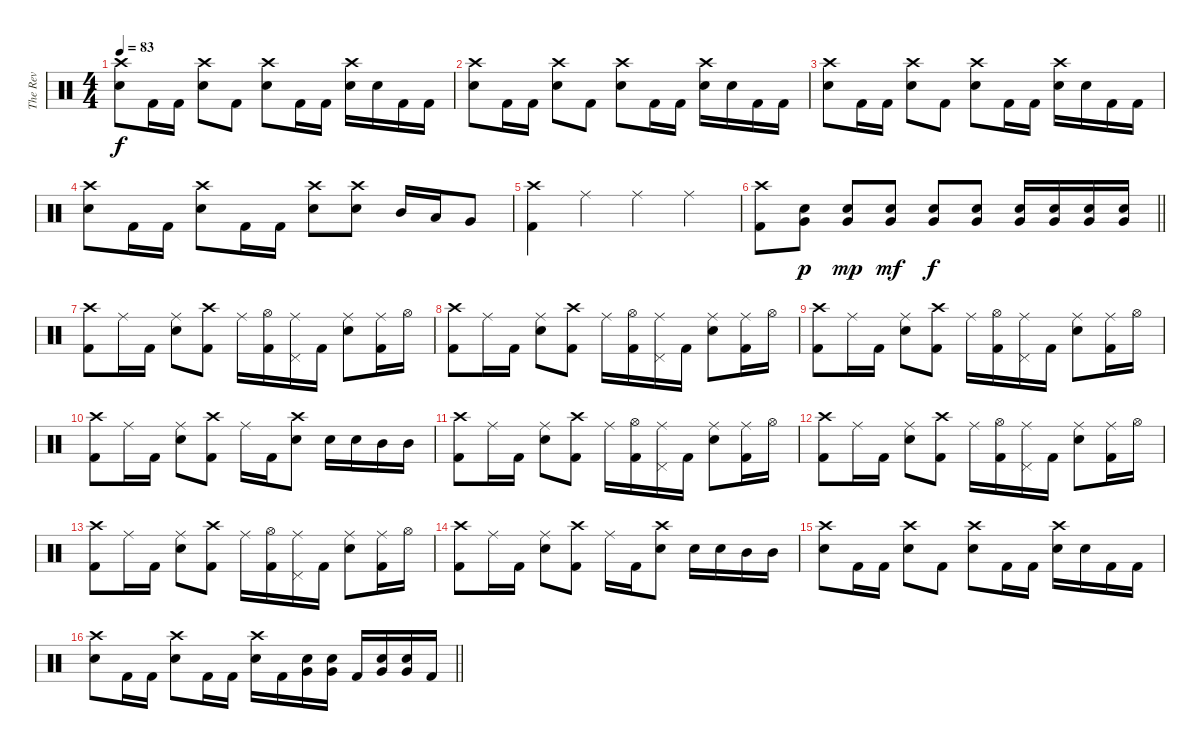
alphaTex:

\track ("The Rev" "The Rev") {instrument percussion}
\staff {score}
\articulation defaults
\ts (4 4)
\tempo 83
\clef neutral
\ks c
("Crash high (hit)" "Snare (hit) 2").8{dy f} "Kick (hit) 2".16 "Kick (hit) 2".16 ("Crash high (hit)" "Snare (hit) 2").8 "Kick (hit) 2".8 ("Crash high (hit)" "Snare (hit) 2").8 "Kick (hit) 2".16 "Kick (hit) 2".16 ("Crash high (hit)" "Snare (hit) 2").16 "Snare (hit) 2".16 "Kick (hit) 2".16 "Kick (hit) 2".16 |
("Crash high (hit)" "Snare (hit) 2").8 "Kick (hit) 2".16 "Kick (hit) 2".16 ("Crash high (hit)" "Snare (hit) 2").8 "Kick (hit) 2".8 ("Crash high (hit)" "Snare (hit) 2").8 "Kick (hit) 2".16 "Kick (hit) 2".16 ("Crash high (hit)" "Snare (hit) 2").16 "Snare (hit) 2".16 "Kick (hit) 2".16 "Kick (hit) 2".16 |
("Crash high (hit)" "Snare (hit) 2").8 "Kick (hit) 2".16 "Kick (hit) 2".16 ("Crash high (hit)" "Snare (hit) 2").8 "Kick (hit) 2".8 ("Crash high (hit)" "Snare (hit) 2").8 "Kick (hit) 2".16 "Kick (hit) 2".16 ("Crash high (hit)" "Snare (hit) 2").16 "Snare (hit) 2".16 "Kick (hit) 2".16 "Kick (hit) 2".16 |
("Crash high (hit)" "Snare (hit) 2").8 "Kick (hit) 2".16 "Kick (hit) 2".16 ("Crash high (hit)" "Snare (hit) 2").8 "Kick (hit) 2".16 "Kick (hit) 2".16 ("Crash high (hit)" "Snare (hit) 2").8 ("Crash high (hit)" "Snare (hit) 2").8 "Mid Tom (hit)".16 "Low Tom (hit)".16 "Very Low Tom (hit)".8 |
("Crash high (hit)" "Kick (hit) 2").4 "Ride (middle)".4 "Ride (middle)".4 "Ride (middle)".4 |
\barLineRight lightlight
("Crash high (hit)" "Kick (hit) 2").8 ("Snare (hit) 2" "Very Low Tom (hit)").8{dy p} ("Snare (hit) 2" "Very Low Tom (hit)").8{dy mp} ("Snare (hit) 2" "Very Low Tom (hit)").8{dy mf} ("Snare (hit) 2" "Very Low Tom (hit)").8{dy f} ("Snare (hit) 2" "Very Low Tom (hit)").8 ("Snare (hit) 2" "Very Low Tom (hit)").16 ("Snare (hit) 2" "Very Low Tom (hit)").16 ("Snare (hit) 2" "Very Low Tom (hit)").16 ("Snare (hit) 2" "Very Low Tom (hit)").16 |
("Crash high (hit)" "Kick (hit) 2").8 "Ride (middle)".16 "Kick (hit) 2".16 ("Ride (middle)" "Snare (hit) 2").8 ("Crash high (hit)" "Kick (hit) 2").8 "Ride (middle)".16 ("Hi-Hat (open)" "Kick (hit) 2").16 ("Ride (middle)" "Pedal Hi-Hat (hit)").16 "Kick (hit) 2".16 ("Ride (middle)" "Snare (hit) 2").8 ("Ride (middle)" "Kick (hit) 2").16 "Hi-Hat (open)".16 |
("Crash high (hit)" "Kick (hit) 2").8 "Ride (middle)".16 "Kick (hit) 2".16 ("Ride (middle)" "Snare (hit) 2").8 ("Crash high (hit)" "Kick (hit) 2").8 "Ride (middle)".16 ("Hi-Hat (open)" "Kick (hit) 2").16 ("Ride (middle)" "Pedal Hi-Hat (hit)").16 "Kick (hit) 2".16 ("Ride (middle)" "Snare (hit) 2").8 ("Ride (middle)" "Kick (hit) 2").16 "Hi-Hat (open)".16 |
("Crash high (hit)" "Kick (hit) 2").8 "Ride (middle)".16 "Kick (hit) 2".16 ("Ride (middle)" "Snare (hit) 2").8 ("Crash high (hit)" "Kick (hit) 2").8 "Ride (middle)".16 ("Hi-Hat (open)" "Kick (hit) 2").16 ("Ride (middle)" "Pedal Hi-Hat (hit)").16 "Kick (hit) 2".16 ("Ride (middle)" "Snare (hit) 2").8 ("Ride (middle)" "Kick (hit) 2").16 "Hi-Hat (open)".16 |
("Crash high (hit)" "Kick (hit) 2").8 "Ride (middle)".16 "Kick (hit) 2".16 ("Ride (middle)" "Snare (hit) 2").8 ("Crash high (hit)" "Kick (hit) 2").8 "Ride (middle)".16 "Kick (hit) 2".16 ("Crash high (hit)" "Snare (hit) 2").8 "Snare (hit) 2".16 "Snare (hit) 2".16 "Mid Tom (hit)".16 "Mid Tom (hit)".16 |
("Crash high (hit)" "Kick (hit) 2").8 "Ride (middle)".16 "Kick (hit) 2".16 ("Ride (middle)" "Snare (hit) 2").8 ("Crash high (hit)" "Kick (hit) 2").8 "Ride (middle)".16 ("Hi-Hat (open)" "Kick (hit) 2").16 ("Ride (middle)" "Pedal Hi-Hat (hit)").16 "Kick (hit) 2".16 ("Ride (middle)" "Snare (hit) 2").8 ("Ride (middle)" "Kick (hit) 2").16 "Hi-Hat (open)".16 |
("Crash high (hit)" "Kick (hit) 2").8 "Ride (middle)".16 "Kick (hit) 2".16 ("Ride (middle)" "Snare (hit) 2").8 ("Crash high (hit)" "Kick (hit) 2").8 "Ride (middle)".16 ("Hi-Hat (open)" "Kick (hit) 2").16 ("Ride (middle)" "Pedal Hi-Hat (hit)").16 "Kick (hit) 2".16 ("Ride (middle)" "Snare (hit) 2").8 ("Ride (middle)" "Kick (hit) 2").16 "Hi-Hat (open)".16 |
("Crash high (hit)" "Kick (hit) 2").8 "Ride (middle)".16 "Kick (hit) 2".16 ("Ride (middle)" "Snare (hit) 2").8 ("Crash high (hit)" "Kick (hit) 2").8 "Ride (middle)".16 ("Hi-Hat (open)" "Kick (hit) 2").16 ("Ride (middle)" "Pedal Hi-Hat (hit)").16 "Kick (hit) 2".16 ("Ride (middle)" "Snare (hit) 2").8 ("Ride (middle)" "Kick (hit) 2").16 "Hi-Hat (open)".16 |
("Crash high (hit)" "Kick (hit) 2").8 "Ride (middle)".16 "Kick (hit) 2".16 ("Ride (middle)" "Snare (hit) 2").8 ("Crash high (hit)" "Kick (hit) 2").8 "Ride (middle)".16 "Kick (hit) 2".16 ("Crash high (hit)" "Snare (hit) 2").8 "Snare (hit) 2".16 "Snare (hit) 2".16 "Mid Tom (hit)".16 "Mid Tom (hit)".16 |
("Crash high (hit)" "Snare (hit) 2").8 "Kick (hit) 2".16 "Kick (hit) 2".16 ("Crash high (hit)" "Snare (hit) 2").8 "Kick (hit) 2".8 ("Crash high (hit)" "Snare (hit) 2").8 "Kick (hit) 2".16 "Kick (hit) 2".16 ("Crash high (hit)" "Snare (hit) 2").16 "Snare (hit) 2".16 "Kick (hit) 2".16 "Kick (hit) 2".16 |
\barLineRight lightlight
("Crash high (hit)" "Snare (hit) 2").8 "Kick (hit) 2".16 "Kick (hit) 2".16 ("Crash high (hit)" "Snare (hit) 2").8 "Kick (hit) 2".16 "Kick (hit) 2".16 ("Crash high (hit)" "Snare (hit) 2").16 "Kick (hit) 2".16 ("Snare (hit) 2" "Very Low Tom (hit)").16 ("Snare (hit) 2" "Very Low Tom (hit)").16 "Kick (hit) 2".16 ("Snare (hit) 2" "Very Low Tom (hit)").16 ("Snare (hit) 2" "Very Low Tom (hit)").16 "Kick (hit) 2".16
